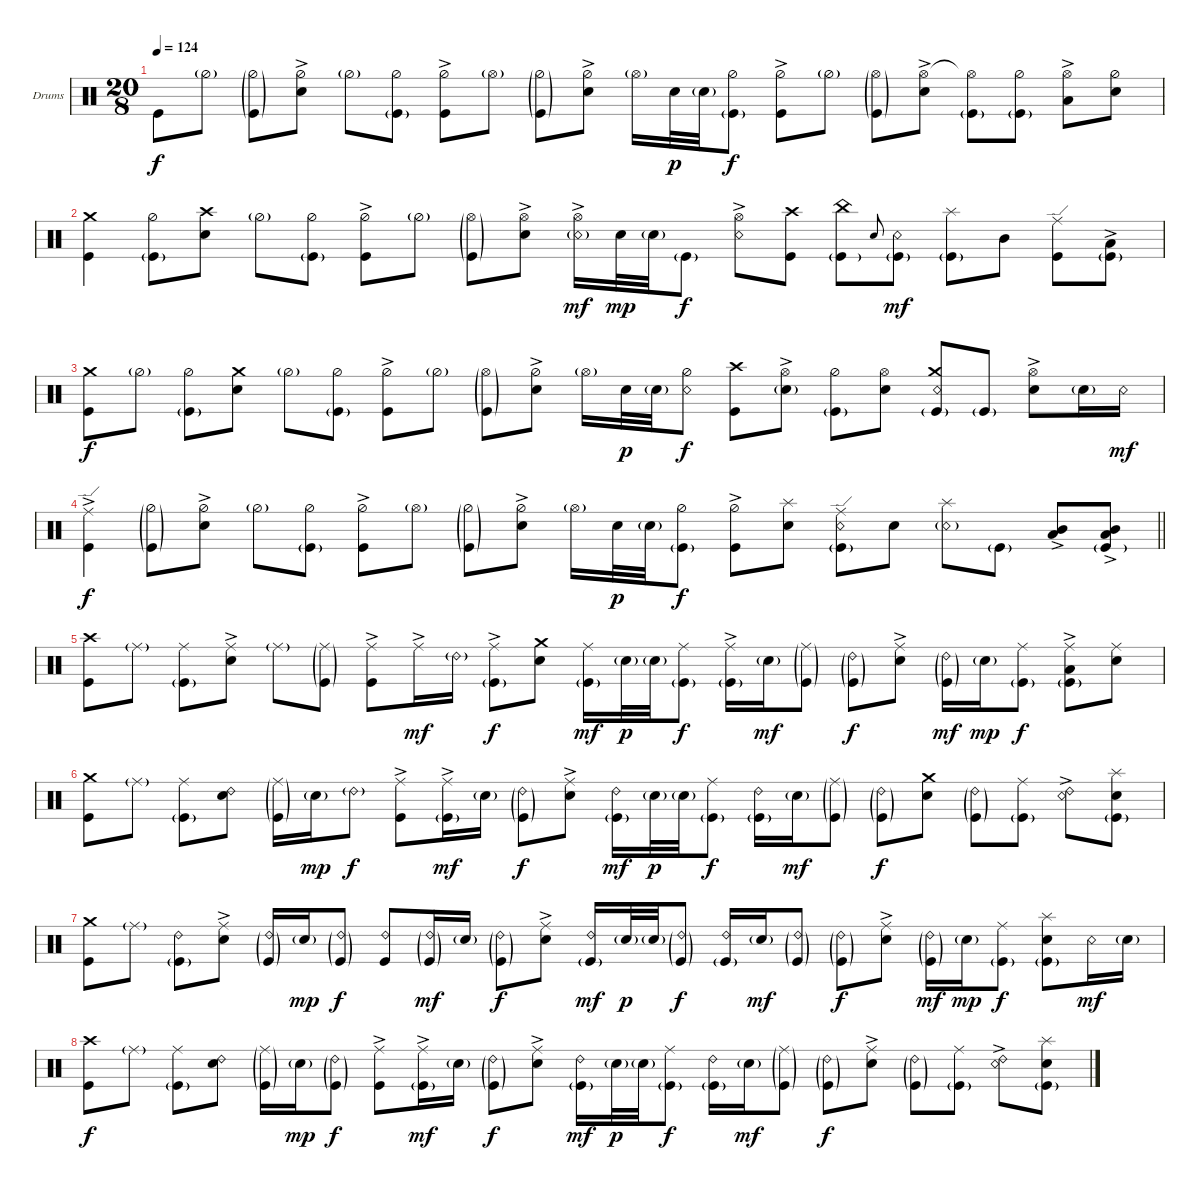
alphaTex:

\bracketExtendMode groupsimilarinstruments
\firstSystemTrackNameOrientation horizontal
\otherSystemsTrackNameOrientation horizontal
\track ("Drumkit" "Drums") {instrument percussion}
\staff {score}
\articulation defaults
\ts (20 8)
\tempo 124
\clef neutral
\ks c "Kick (hit)".8{dy f} "Hi-Hat (half)"{g}.8
("Kick (hit)"{g} "Hi-Hat (half)"{g}).8 ("Snare (hit) 2" "Hi-Hat (half)"{ac}).8 "Hi-Hat (half)"{g}.8 ("Kick (hit)"{g} "Hi-Hat (half)").8 ("Kick (hit)" "Hi-Hat (half)"{ac}).8 "Hi-Hat (open)"{g}.8 ("Kick (hit)"{g} "Hi-Hat (half)"{g}).8 ("Snare (hit) 2" "Hi-Hat (half)"{ac}).8 "Hi-Hat (open)"{g}.16 "Snare (hit) 2".32{dy p} "Snare (hit) 2"{g}.32 ("Kick (hit)"{g} "Hi-Hat (half)").8{dy f} ("Kick (hit)" "Hi-Hat (half)"{ac}).8 "Hi-Hat (half)"{g}.8 ("Kick (hit)"{g} "Hi-Hat (open)"{g}).8 ("Snare (hit) 2" "Hi-Hat (open)"{ac}).8 ("Kick (hit)"{g} "Hi-Hat (open)"{t}).8 ("Hi-Hat (half)" "Kick (hit)"{g}).8 ("Low Tom (hit)"{ac} "Hi-Hat (open)").8 ("Snare (hit) 2" "Hi-Hat (half)").8 |
("Kick (hit)" "Crash medium (hit)").4 ("Kick (hit)"{g} "Hi-Hat (half)").8 ("Snare (hit) 2" "Crash high (hit)").8 "Hi-Hat (half)"{g}.8 ("Kick (hit)"{g} "Hi-Hat (half)").8 ("Kick (hit)" "Hi-Hat (half)"{ac}).8 "Hi-Hat (half)"{g}.8 ("Kick (hit)"{g} "Hi-Hat (open)"{g}).8 ("Snare (hit) 2" "Hi-Hat (open)"{ac}).8 ("Hi-Hat (open)"{ac} "Snare (rim shot)"{g}).16{dy mf} "Snare (hit) 2".32{dy mp} "Snare (hit) 2"{g}.32 "Kick (hit)"{g}.8{dy f} ("Hi-Hat (open)"{ac} "Snare (rim shot)").8 ("Kick (hit)" "Crash high (hit)").8 ("Kick (hit)"{g} "China (hit)").8 "Snare (hit) 2".8{gr onbeat} ("Kick (hit)"{g} "Snare (rim shot)").8{dy mf} ("Kick (hit)"{g} "Splash (hit)").8 "Mid Tom (hit)".8 ("Ride (edge)" "Kick (hit)").8 ("Low Tom (hit)"{ac} "Kick (hit)"{g}).8 |
("Kick (hit)" "Crash medium (hit)").8{dy f} "Hi-Hat (half)"{g}.8 ("Kick (hit)"{g} "Hi-Hat (half)").8 ("Snare (hit) 2" "Crash medium (hit)").8 "Hi-Hat (half)"{g}.8 ("Kick (hit)"{g} "Hi-Hat (half)").8 ("Kick (hit)" "Hi-Hat (half)"{ac}).8 "Hi-Hat (half)"{g}.8 ("Kick (hit)"{g} "Hi-Hat (open)"{g}).8 ("Snare (hit) 2" "Hi-Hat (half)"{ac}).8 "Hi-Hat (open)"{g}.16 "Snare (hit) 2".32{dy p} "Snare (hit) 2"{g}.32 ("Hi-Hat (half)" "Snare (rim shot)").8{dy f} ("Kick (hit)" "Crash high (hit)").8 ("Hi-Hat (open)"{ac} "Snare (hit) 2"{g}).8 ("Kick (hit)"{g} "Hi-Hat (half)").8 ("Snare (hit) 2" "Hi-Hat (open)").8 ("Kick (hit)"{g} "Snare (rim shot)" "Crash medium (hit)").8 "Kick (hit)"{g}.8 ("Snare (hit) 2" "Hi-Hat (open)"{ac}).8 "Snare (hit) 2"{g}.16 "Snare (rim shot)".16{dy mf} |
\barLineRight lightlight
("Kick (hit)" "Ride (edge)"{ac}).4{dy f} ("Kick (hit)"{g} "Hi-Hat (half)"{g}).8 ("Snare (hit) 2" "Hi-Hat (half)"{ac}).8 "Hi-Hat (half)"{g}.8 ("Kick (hit)"{g} "Hi-Hat (half)").8 ("Kick (hit)" "Hi-Hat (half)"{ac}).8 "Hi-Hat (open)"{g}.8 ("Kick (hit)"{g} "Hi-Hat (half)"{g}).8 ("Snare (hit) 2" "Hi-Hat (half)"{ac}).8 "Hi-Hat (open)"{g}.16 "Snare (hit) 2".32{dy p} "Snare (hit) 2"{g}.32 ("Kick (hit)"{g} "Hi-Hat (half)").8{dy f} ("Kick (hit)" "Hi-Hat (half)"{ac}).8 ("Snare (hit) 2" "Splash (hit)").8 ("Kick (hit)"{g} "Snare (rim shot)" "Ride (edge)").8 "Snare (hit) 2".8 ("Snare (rim shot)"{g} "Splash (hit)").8 "Kick (hit)"{g}.8 ("Mid Tom (hit)" "Low Tom (hit)"{ac}).8 ("Kick (hit)"{g} "Mid Tom (hit)" "Low Tom (hit)"{ac}).8 |
("Kick (hit)" "Crash high (hit)").8 "Ride (middle)"{g}.8 ("Ride (middle)" "Kick (hit)"{g}).8 ("Ride (middle)"{ac} "Snare (hit) 2").8 "Ride (middle)"{g}.8 ("Ride (middle)"{g} "Kick (hit)"{g}).8 ("Ride (middle)"{ac} "Kick (hit)").8 "Ride (middle)"{ac}.16{dy mf} "Ride (bell) 2"{g}.16 ("Ride (middle)"{ac} "Kick (hit)"{g}).8{dy f} ("Snare (hit) 2" "Crash medium (hit)").8 ("Kick (hit)"{g} "Ride (middle)").16{dy mf} "Snare (hit) 2"{g}.32{dy p} "Snare (hit) 2"{g}.32 ("Ride (middle)" "Kick (hit)"{g}).8{dy f} ("Ride (middle)"{ac} "Kick (hit)"{g}).16 "Snare (hit) 2"{g}.16{dy mf} ("Ride (middle)"{g} "Kick (hit)"{g}).8 ("Ride (bell) 2"{g} "Kick (hit)"{g}).8{dy f} ("Ride (middle)"{ac} "Snare (hit) 2").8 ("Ride (bell) 2"{g} "Kick (hit)"{g}).16{dy mf} "Snare (hit) 2"{g}.16{dy mp} ("Ride (middle)" "Kick (hit)"{g}).8{dy f} ("Low Tom (hit)"{ac} "Kick (hit)"{g} "Ride (middle)").8 ("Snare (hit) 2" "Ride (middle)").8 |
("Kick (hit)" "Crash medium (hit)").8 "Ride (middle)"{g}.8 ("Ride (middle)" "Kick (hit)"{g}).8 ("Ride (bell) 2" "Snare (hit) 2").8 ("Ride (middle)"{g} "Kick (hit)"{g}).16 "Snare (hit) 2"{g}.16{dy mp} "Ride (bell) 2"{g}.8{dy f} ("Ride (middle)"{ac} "Kick (hit)").8 ("Ride (middle)"{ac} "Kick (hit)"{g}).16{dy mf} "Snare (hit) 2"{g}.16 ("Ride (bell) 2"{g} "Kick (hit)"{g}).8{dy f} ("Ride (middle)"{ac} "Snare (hit) 2").8 ("Ride (bell) 2" "Kick (hit)"{g}).16{dy mf} "Snare (hit) 2"{g}.32{dy p} "Snare (hit) 2"{g}.32 ("Ride (middle)" "Kick (hit)"{g}).8{dy f} ("Ride (bell) 2" "Kick (hit)"{g}).16 "Snare (hit) 2"{g}.16{dy mf} ("Ride (middle)"{g} "Kick (hit)"{g}).8 ("Ride (bell) 2"{g} "Kick (hit)"{g}).8{dy f} ("Snare (hit) 2" "Crash medium (hit)").8 ("Ride (bell) 2"{g} "Kick (hit)"{g}).8 ("Ride (middle)" "Kick (hit)"{g}).8 ("Ride (bell) 2"{ac} "Snare (rim shot)").8 ("Snare (hit) 2" "Kick (hit)"{g} "Splash (hit)").8 |
("Kick (hit)" "Crash medium (hit)").8 "Ride (middle)"{g}.8 ("Ride (bell) 2" "Kick (hit)"{g}).8 ("Ride (middle)"{ac} "Snare (hit) 2").8 ("Ride (bell) 2"{g} "Kick (hit)"{g}).16 "Snare (hit) 2"{g}.16{dy mp} ("Ride (bell) 2"{g} "Kick (hit)"{g}).8{dy f} ("Ride (bell) 2" "Kick (hit)").8 ("Ride (bell) 2"{g} "Kick (hit)"{g}).16{dy mf} "Snare (hit) 2"{g}.16 ("Ride (bell) 2"{g} "Kick (hit)"{g}).8{dy f} ("Ride (middle)"{ac} "Snare (hit) 2").8 ("Ride (bell) 2" "Kick (hit)"{g}).16{dy mf} "Snare (hit) 2"{g}.32{dy p} "Snare (hit) 2"{g}.32 ("Ride (bell) 2"{g} "Kick (hit)"{g}).8{dy f} ("Ride (bell) 2" "Kick (hit)"{g}).16 "Snare (hit) 2"{g}.16{dy mf} ("Ride (bell) 2"{g} "Kick (hit)"{g}).8 ("Ride (bell) 2"{g} "Kick (hit)"{g}).8{dy f} ("Ride (middle)"{ac} "Snare (hit) 2").8 ("Ride (bell) 2"{g} "Kick (hit)"{g}).16{dy mf} "Snare (hit) 2"{g}.16{dy mp} ("Ride (middle)" "Kick (hit)"{g}).8{dy f} ("Kick (hit)"{g} "Splash (hit)" "Snare (hit) 2").8 "Snare (rim shot)".16{dy mf} "Snare (hit) 2"{g}.16 |
("Kick (hit)" "Crash high (hit)").8{dy f} "Ride (middle)"{g}.8 ("Ride (middle)" "Kick (hit)"{g}).8 ("Ride (bell) 2" "Snare (hit) 2").8 ("Ride (middle)"{g} "Kick (hit)"{g}).16 "Snare (hit) 2"{g}.16{dy mp} ("Ride (bell) 2"{g} "Kick (hit)"{g}).8{dy f} ("Ride (middle)"{ac} "Kick (hit)").8 ("Ride (middle)"{ac} "Kick (hit)"{g}).16{dy mf} "Snare (hit) 2"{g}.16 ("Ride (bell) 2"{g} "Kick (hit)"{g}).8{dy f} ("Ride (middle)"{ac} "Snare (hit) 2").8 ("Ride (bell) 2" "Kick (hit)"{g}).16{dy mf} "Snare (hit) 2"{g}.32{dy p} "Snare (hit) 2"{g}.32 ("Ride (middle)" "Kick (hit)"{g}).8{dy f} ("Ride (bell) 2" "Kick (hit)"{g}).16 "Snare (hit) 2"{g}.16{dy mf} ("Ride (middle)"{g} "Kick (hit)"{g}).8 ("Ride (bell) 2"{g} "Kick (hit)"{g}).8{dy f} ("Ride (middle)"{ac} "Snare (hit) 2").8 ("Ride (bell) 2"{g} "Kick (hit)"{g}).8 ("Ride (middle)" "Kick (hit)"{g}).8 ("Ride (bell) 2"{ac} "Snare (rim shot)").8 ("Snare (hit) 2" "Kick (hit)"{g} "Splash (hit)").8
